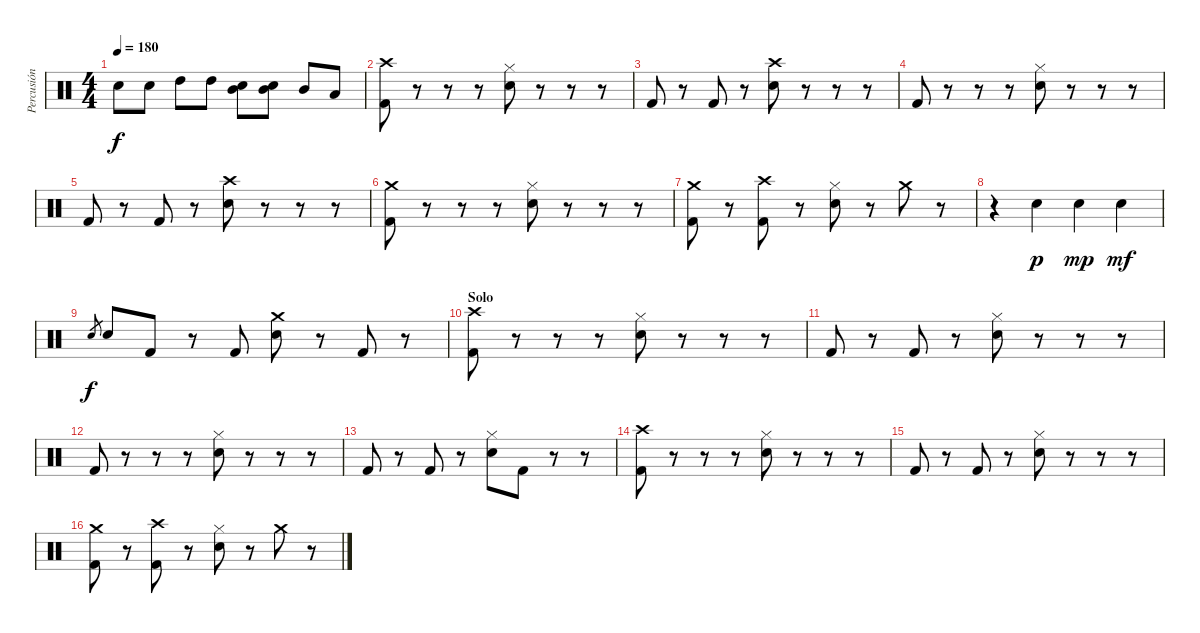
\track ("Percusión" "Percusión") {instrument percussion}
\staff {score}
\articulation defaults
\ts (4 4)
\tempo 180
\clef neutral
\ks c "Snare (hit) 2".8{dy f} "Snare (hit) 2".8 "High Tom (hit)".8 "High Tom (hit)".8
("Mid Tom (hit)" "Snare (hit) 2").8 ("Mid Tom (hit)" "Snare (hit) 2").8 "Mid Tom (hit)".8 "Low Tom (hit)".8 |
("Crash high (hit)" "Kick (hit) 2").8 r.8 r.8 r.8 ("Hi-Hat (closed)" "Snare (hit) 2").8 r.8 r.8 r.8 |
"Kick (hit) 2".8 r.8 "Kick (hit) 2".8 r.8 ("Crash high (hit)" "Snare (hit) 2").8 r.8 r.8 r.8 |
"Kick (hit) 2".8 r.8 r.8 r.8 ("Hi-Hat (closed)" "Snare (hit) 2").8 r.8 r.8 r.8 |
"Kick (hit) 2".8 r.8 "Kick (hit) 2".8 r.8 ("Crash high (hit)" "Snare (hit) 2").8 r.8 r.8 r.8 |
("Crash medium (hit)" "Kick (hit) 2").8 r.8 r.8 r.8 ("Hi-Hat (closed)" "Snare (hit) 2").8 r.8 r.8 r.8 |
("Crash medium (hit)" "Kick (hit) 2").8 r.8 ("Crash high (hit)" "Kick (hit) 2").8 r.8 ("Hi-Hat (closed)" "Snare (hit) 2").8 r.8 "Crash medium (hit)".8 r.8 |
r.4 "Snare (hit) 2".4{dy p} "Snare (hit) 2".4{dy mp} "Snare (hit) 2".4{dy mf} |
"Snare (hit) 2".8{gr dy f} "Snare (hit) 2".8 "Kick (hit) 2".8 r.8 "Kick (hit) 2".8 ("Crash medium (hit)" "Snare (hit) 2").8 r.8 "Kick (hit) 2".8 r.8 |
\section ("" "Solo")
("Crash high (hit)" "Kick (hit) 2").8 r.8 r.8 r.8 ("Hi-Hat (closed)" "Snare (hit) 2").8 r.8 r.8 r.8 |
"Kick (hit) 2".8 r.8 "Kick (hit) 2".8 r.8 ("Hi-Hat (closed)" "Snare (hit) 2").8 r.8 r.8 r.8 |
"Kick (hit) 2".8 r.8 r.8 r.8 ("Hi-Hat (closed)" "Snare (hit) 2").8 r.8 r.8 r.8 |
"Kick (hit) 2".8 r.8 "Kick (hit) 2".8 r.8 ("Hi-Hat (closed)" "Snare (hit) 2").8 "Kick (hit) 2".8 r.8 r.8 |
("Crash high (hit)" "Kick (hit) 2").8 r.8 r.8 r.8 ("Hi-Hat (closed)" "Snare (hit) 2").8 r.8 r.8 r.8 |
"Kick (hit) 2".8 r.8 "Kick (hit) 2".8 r.8 ("Hi-Hat (closed)" "Snare (hit) 2").8 r.8 r.8 r.8 |
("Crash medium (hit)" "Kick (hit) 2").8 r.8 ("Crash high (hit)" "Kick (hit) 2").8 r.8 ("Hi-Hat (closed)" "Snare (hit) 2").8 r.8 "Crash medium (hit)".8 r.8
